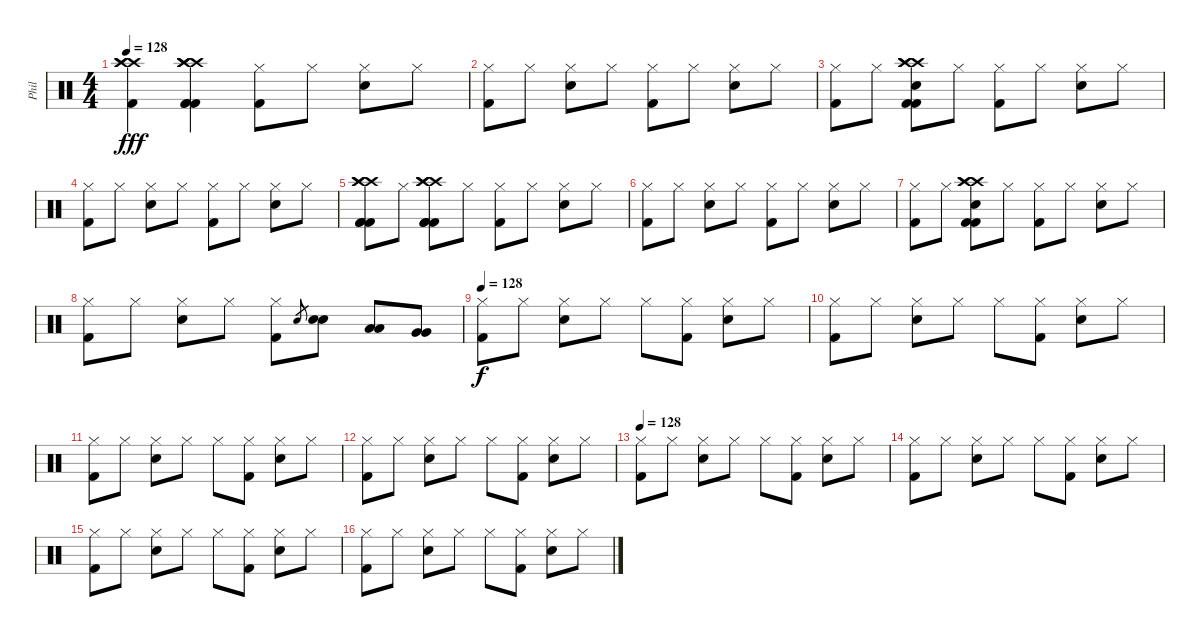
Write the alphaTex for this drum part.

\track ("Phil" "Phil") {instrument percussion}
\staff {score}
\articulation defaults
\ts (4 4)
\tempo 128
\clef neutral
\ks c
("Crash high (hit)" "Crash high (hit)" "Crash high (hit)" "Kick (hit) 2").4{dy fff} ("Crash high (hit)" "Crash high (hit)" "Crash high (hit)" "Kick (hit) 2" "Kick (hit) 2" "Kick (hit) 2").4 ("Hi-Hat (closed)" "Kick (hit) 2").8 "Hi-Hat (closed)".8 ("Hi-Hat (closed)" "Electric Snare (hit)").8 "Hi-Hat (closed)".8 |
("Hi-Hat (closed)" "Kick (hit) 2").8 "Hi-Hat (closed)".8 ("Hi-Hat (closed)" "Electric Snare (hit)").8 "Hi-Hat (closed)".8 ("Hi-Hat (closed)" "Kick (hit) 2").8 "Hi-Hat (closed)".8 ("Hi-Hat (closed)" "Electric Snare (hit)").8 "Hi-Hat (closed)".8 |
("Hi-Hat (closed)" "Kick (hit) 2").8 "Hi-Hat (closed)".8 ("Crash high (hit)" "Crash high (hit)" "Crash high (hit)" "Electric Snare (hit)" "Kick (hit) 2" "Kick (hit) 2").8 "Hi-Hat (closed)".8 ("Hi-Hat (closed)" "Kick (hit) 2").8 "Hi-Hat (closed)".8 ("Hi-Hat (closed)" "Electric Snare (hit)").8 "Hi-Hat (closed)".8 |
("Hi-Hat (closed)" "Kick (hit) 2").8 "Hi-Hat (closed)".8 ("Hi-Hat (closed)" "Electric Snare (hit)").8 "Hi-Hat (closed)".8 ("Hi-Hat (closed)" "Kick (hit) 2").8 "Hi-Hat (closed)".8 ("Hi-Hat (closed)" "Electric Snare (hit)").8 "Hi-Hat (closed)".8 |
("Crash high (hit)" "Crash high (hit)" "Crash high (hit)" "Kick (hit) 2" "Kick (hit) 2" "Kick (hit) 2").8 "Hi-Hat (closed)".8 ("Crash high (hit)" "Crash high (hit)" "Crash high (hit)" "Kick (hit) 2" "Kick (hit) 2" "Kick (hit) 2").8 "Hi-Hat (closed)".8 ("Hi-Hat (closed)" "Kick (hit) 2").8 "Hi-Hat (closed)".8 ("Hi-Hat (closed)" "Electric Snare (hit)").8 "Hi-Hat (closed)".8 |
("Hi-Hat (closed)" "Kick (hit) 2").8 "Hi-Hat (closed)".8 ("Hi-Hat (closed)" "Electric Snare (hit)").8 "Hi-Hat (closed)".8 ("Hi-Hat (closed)" "Kick (hit) 2").8 "Hi-Hat (closed)".8 ("Hi-Hat (closed)" "Electric Snare (hit)").8 "Hi-Hat (closed)".8 |
("Hi-Hat (closed)" "Kick (hit) 2").8 "Hi-Hat (closed)".8 ("Crash high (hit)" "Crash high (hit)" "Crash high (hit)" "Electric Snare (hit)" "Kick (hit) 2" "Kick (hit) 2").8 "Hi-Hat (closed)".8 ("Hi-Hat (closed)" "Kick (hit) 2").8 "Hi-Hat (closed)".8 ("Hi-Hat (closed)" "Electric Snare (hit)").8 "Hi-Hat (closed)".8 |
("Hi-Hat (closed)" "Kick (hit) 2").8 "Hi-Hat (closed)".8 ("Hi-Hat (closed)" "Electric Snare (hit)").8 "Hi-Hat (closed)".8 ("Hi-Hat (closed)" "Kick (hit) 2").8 "Electric Snare (hit)".8{gr} ("Electric Snare (hit)" "Electric Snare (hit)").8 ("Low Tom (hit)" "Low Tom (hit)").8 ("Very Low Tom (hit)" "Very Low Tom (hit)").8 |
\tempo 128
("Hi-Hat (closed)" "Kick (hit) 2").8{dy f} "Hi-Hat (closed)".8 ("Hi-Hat (closed)" "Electric Snare (hit)").8 "Hi-Hat (closed)".8 "Hi-Hat (closed)".8 ("Hi-Hat (closed)" "Kick (hit) 2").8 ("Hi-Hat (closed)" "Electric Snare (hit)").8 "Hi-Hat (closed)".8 |
("Hi-Hat (closed)" "Kick (hit) 2").8 "Hi-Hat (closed)".8 ("Hi-Hat (closed)" "Electric Snare (hit)").8 "Hi-Hat (closed)".8 "Hi-Hat (closed)".8 ("Hi-Hat (closed)" "Kick (hit) 2").8 ("Hi-Hat (closed)" "Electric Snare (hit)").8 "Hi-Hat (closed)".8 |
("Hi-Hat (closed)" "Kick (hit) 2").8 "Hi-Hat (closed)".8 ("Hi-Hat (closed)" "Electric Snare (hit)").8 "Hi-Hat (closed)".8 "Hi-Hat (closed)".8 ("Hi-Hat (closed)" "Kick (hit) 2").8 ("Hi-Hat (closed)" "Electric Snare (hit)").8 "Hi-Hat (closed)".8 |
("Hi-Hat (closed)" "Kick (hit) 2").8 "Hi-Hat (closed)".8 ("Hi-Hat (closed)" "Electric Snare (hit)").8 "Hi-Hat (closed)".8 "Hi-Hat (closed)".8 ("Hi-Hat (closed)" "Kick (hit) 2").8 ("Hi-Hat (closed)" "Electric Snare (hit)").8 "Hi-Hat (closed)".8 |
\tempo 128
("Hi-Hat (closed)" "Kick (hit) 2").8 "Hi-Hat (closed)".8 ("Hi-Hat (closed)" "Electric Snare (hit)").8 "Hi-Hat (closed)".8 "Hi-Hat (closed)".8 ("Hi-Hat (closed)" "Kick (hit) 2").8 ("Hi-Hat (closed)" "Electric Snare (hit)").8 "Hi-Hat (closed)".8 |
("Hi-Hat (closed)" "Kick (hit) 2").8 "Hi-Hat (closed)".8 ("Hi-Hat (closed)" "Electric Snare (hit)").8 "Hi-Hat (closed)".8 "Hi-Hat (closed)".8 ("Hi-Hat (closed)" "Kick (hit) 2").8 ("Hi-Hat (closed)" "Electric Snare (hit)").8 "Hi-Hat (closed)".8 |
("Hi-Hat (closed)" "Kick (hit) 2").8 "Hi-Hat (closed)".8 ("Hi-Hat (closed)" "Electric Snare (hit)").8 "Hi-Hat (closed)".8 "Hi-Hat (closed)".8 ("Hi-Hat (closed)" "Kick (hit) 2").8 ("Hi-Hat (closed)" "Electric Snare (hit)").8 "Hi-Hat (closed)".8 |
("Hi-Hat (closed)" "Kick (hit) 2").8 "Hi-Hat (closed)".8 ("Hi-Hat (closed)" "Electric Snare (hit)").8 "Hi-Hat (closed)".8 "Hi-Hat (closed)".8 ("Hi-Hat (closed)" "Kick (hit) 2").8 ("Hi-Hat (closed)" "Electric Snare (hit)").8 "Hi-Hat (closed)".8
